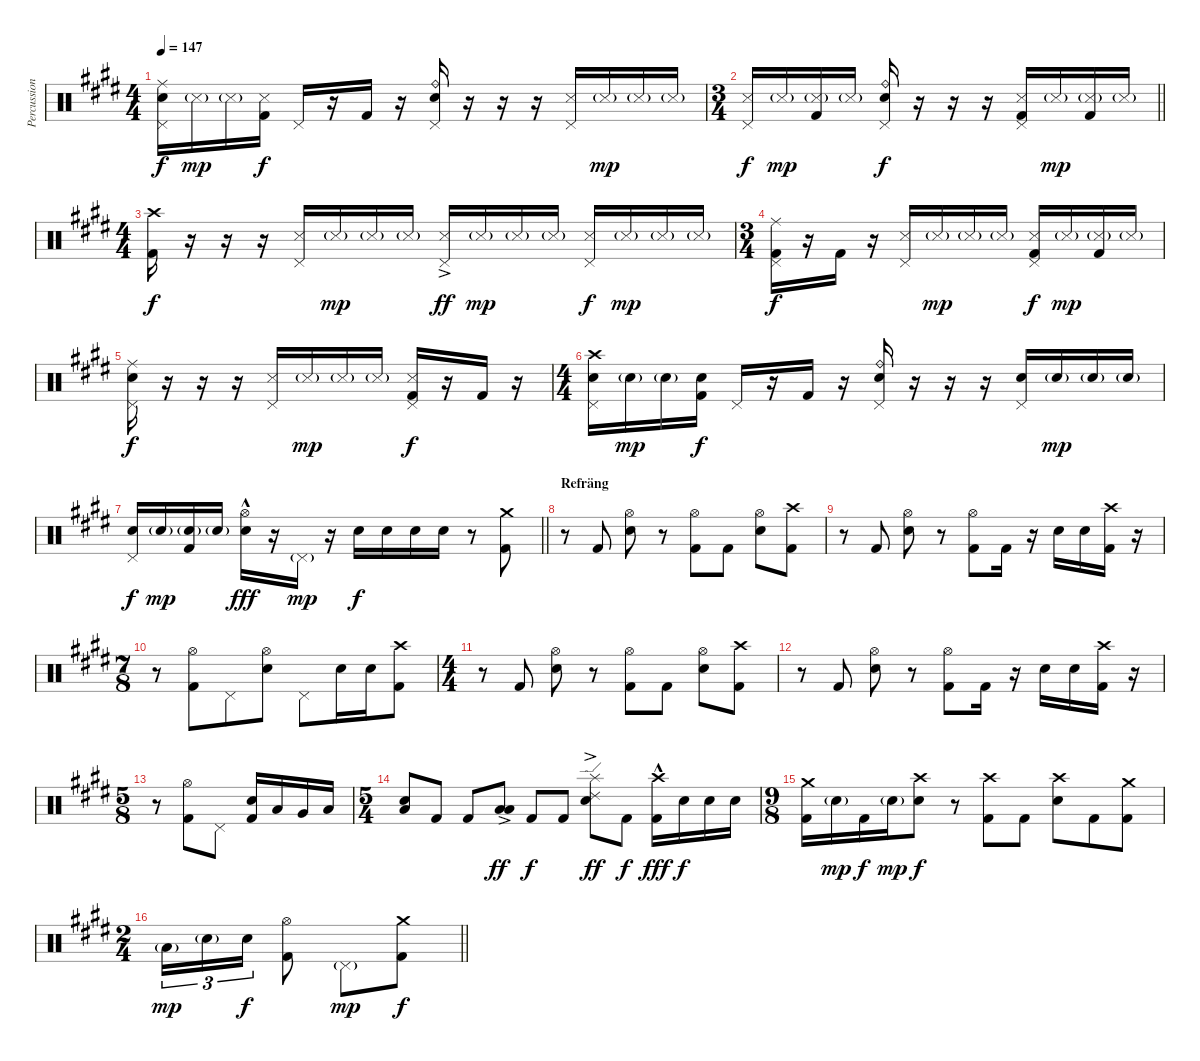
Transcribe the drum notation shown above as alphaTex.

\track ("Percussion" "Percussion") {instrument percussion}
\staff {score}
\articulation defaults
\ts (4 4)
\tempo 147
\clef neutral
\ks e
("Ride (middle)" "Pedal Hi-Hat (hit)" "Snare (hit) 2").16{dy f} "Snare (side stick) 3"{g}.16{dy mp} "Snare (side stick) 3"{g}.16 ("Snare (side stick) 3" "Kick (hit) 2").16{dy f} "Pedal Hi-Hat (hit)".16 r.16 "Kick (hit) 2".16 r.16 ("Ride (bell)" "Pedal Hi-Hat (hit)" "Snare (hit) 2").16 r.16 r.16 r.16 ("Pedal Hi-Hat (hit)" "Snare (side stick) 3").16 "Snare (side stick) 3"{g}.16{dy mp} "Snare (side stick) 3"{g}.16 "Snare (side stick) 3"{g}.16 |
\ts (3 4)
\barLineRight lightlight
("Pedal Hi-Hat (hit)" "Snare (side stick) 3").16{dy f} "Snare (side stick) 3"{g}.16{dy mp} ("Snare (side stick) 3"{g} "Kick (hit) 2").16 "Snare (side stick) 3"{g}.16 ("Ride (bell)" "Pedal Hi-Hat (hit)" "Snare (hit) 2").16{dy f} r.16 r.16 r.16 ("Pedal Hi-Hat (hit)" "Snare (side stick) 3" "Kick (hit) 2").16 "Snare (side stick) 3"{g}.16{dy mp} ("Snare (side stick) 3"{g} "Kick (hit) 2").16 "Snare (side stick) 3"{g}.16 |
\ts (4 4)
("Crash high (hit)" "Kick (hit) 2").16{dy f} r.16 r.16 r.16 ("Pedal Hi-Hat (hit)" "Snare (side stick) 3").16 "Snare (side stick) 3"{g}.16{dy mp} "Snare (side stick) 3"{g}.16 "Snare (side stick) 3"{g}.16 ("Pedal Hi-Hat (hit)" "Snare (side stick) 3"{ac}).16{dy ff} "Snare (side stick) 3"{g}.16{dy mp} "Snare (side stick) 3"{g}.16 "Snare (side stick) 3"{g}.16 ("Pedal Hi-Hat (hit)" "Snare (side stick) 3").16{dy f} "Snare (side stick) 3"{g}.16{dy mp} "Snare (side stick) 3"{g}.16 "Snare (side stick) 3"{g}.16 |
\ts (3 4)
("Ride (middle)" "Pedal Hi-Hat (hit)" "Kick (hit) 2").16{dy f} r.16 "Kick (hit) 2".16 r.16 ("Pedal Hi-Hat (hit)" "Snare (side stick) 3").16 "Snare (side stick) 3"{g}.16{dy mp} "Snare (side stick) 3"{g}.16 "Snare (side stick) 3"{g}.16 ("Pedal Hi-Hat (hit)" "Snare (side stick) 3" "Kick (hit) 2").16{dy f} "Snare (side stick) 3"{g}.16{dy mp} ("Snare (side stick) 3"{g} "Kick (hit) 2").16 "Snare (side stick) 3"{g}.16 |
("Ride (middle)" "Pedal Hi-Hat (hit)" "Snare (hit) 2").16{dy f} r.16 r.16 r.16 ("Pedal Hi-Hat (hit)" "Snare (side stick) 3").16 "Snare (side stick) 3"{g}.16{dy mp} "Snare (side stick) 3"{g}.16 "Snare (side stick) 3"{g}.16 ("Pedal Hi-Hat (hit)" "Snare (side stick) 3" "Kick (hit) 2").16{dy f} r.16 "Kick (hit) 2".16 r.16 |
\ts (4 4)
("Crash high (hit)" "Pedal Hi-Hat (hit)" "Snare (hit) 2").16 "Snare (hit) 2"{g}.16{dy mp} "Snare (hit) 2"{g}.16 ("Snare (hit) 2" "Kick (hit) 2").16{dy f} "Pedal Hi-Hat (hit)".16 r.16 "Kick (hit) 2".16 r.16 ("Ride (bell)" "Pedal Hi-Hat (hit)" "Snare (hit) 2").16 r.16 r.16 r.16 ("Pedal Hi-Hat (hit)" "Snare (hit) 2").16 "Snare (hit) 2"{g}.16{dy mp} "Snare (hit) 2"{g}.16 "Snare (hit) 2"{g}.16 |
\barLineRight lightlight
("Pedal Hi-Hat (hit)" "Snare (hit) 2").16{dy f} "Snare (hit) 2"{g}.16{dy mp} ("Snare (hit) 2"{g} "Kick (hit) 2").16 "Snare (hit) 2"{g}.16 ("Hi-Hat (open)"{hac} "Snare (hit) 2"{hac}).16{dy fff} r.16 "Pedal Hi-Hat (hit)"{g}.16{dy mp} r.16 "Snare (hit) 2".16{dy f} "Snare (hit) 2".16 "Snare (hit) 2".16 "Snare (hit) 2".16 r.8 ("Crash medium (hit)" "Kick (hit) 2").8 |
\section ("" "Refräng")
r.8 "Kick (hit) 2".8 ("Hi-Hat (open)" "Snare (hit) 2").8 r.8 ("Hi-Hat (open)" "Kick (hit) 2").8 "Kick (hit) 2".8 ("Hi-Hat (open)" "Snare (hit) 2").8 ("Crash high (hit)" "Kick (hit) 2").8 |
r.8 "Kick (hit) 2".8 ("Hi-Hat (open)" "Snare (hit) 2").8 r.8 ("Hi-Hat (open)" "Kick (hit) 2").8 "Kick (hit) 2".16 r.16 "Snare (hit) 2".16 "Snare (hit) 2".16 ("Crash high (hit)" "Kick (hit) 2").16 r.16 |
\ts (7 8)
r.8 ("Hi-Hat (open)" "Kick (hit) 2").8 "Pedal Hi-Hat (hit)".8 ("Hi-Hat (open)" "Snare (hit) 2").8 "Pedal Hi-Hat (hit)".8 "Snare (hit) 2".16 "Snare (hit) 2".16 ("Crash high (hit)" "Kick (hit) 2").8 |
\ts (4 4)
r.8 "Kick (hit) 2".8 ("Hi-Hat (open)" "Snare (hit) 2").8 r.8 ("Hi-Hat (open)" "Kick (hit) 2").8 "Kick (hit) 2".8 ("Hi-Hat (open)" "Snare (hit) 2").8 ("Crash high (hit)" "Kick (hit) 2").8 |
r.8 "Kick (hit) 2".8 ("Hi-Hat (open)" "Snare (hit) 2").8 r.8 ("Hi-Hat (open)" "Kick (hit) 2").8 "Kick (hit) 2".16 r.16 "Snare (hit) 2".16 "Snare (hit) 2".16 ("Crash high (hit)" "Kick (hit) 2").16 r.16 |
\ts (5 8)
r.8 ("Hi-Hat (open)" "Kick (hit) 2").8 "Pedal Hi-Hat (hit)".8 ("Snare (hit) 2" "Kick (hit) 2").16 "Low Tom (hit)".16 "Very Low Tom (hit)".16 "Low Floor Tom (hit)".16 |
\ts (5 4)
("Snare (hit) 2" "Low Tom (hit)").8{bd 120} "Kick (hit) 2".8 "Kick (hit) 2".8 ("Low Tom (hit)"{ac} "Low Floor Tom (hit)"{ac}).8{bd 120 dy ff} "Kick (hit) 2".8{dy f} "Kick (hit) 2".8 ("Ride (edge) 2" "Splash (hit)" "Snare (hit) 2"{ac}).8{dy ff} "Kick (hit) 2".8{dy f} ("Crash high (hit)"{hac} "Kick (hit) 2"{hac}).16{dy fff} "Snare (hit) 2".16{dy f} "Snare (hit) 2".16 "Snare (hit) 2".16 |
\ts (9 8)
("Crash medium (hit)" "Kick (hit) 2").16 "Snare (hit) 2"{g}.16{dy mp} "Kick (hit) 2".16{dy f} "Snare (hit) 2"{g}.16{dy mp} ("Crash high (hit)" "Snare (hit) 2").8{dy f} r.8 ("Crash high (hit)" "Kick (hit) 2").8 "Kick (hit) 2".8 ("Crash high (hit)" "Snare (hit) 2").8 "Kick (hit) 2".8 ("Crash medium (hit)" "Kick (hit) 2").8 |
\ts (2 4)
\barLineRight lightlight "Low Tom (hit)"{g}.16{tu (3 2) dy mp} "Snare (hit) 2"{g}.16{tu (3 2)} "Snare (hit) 2".16{tu (3 2) dy f}
("Hi-Hat (open)" "Kick (hit) 2").8 "Pedal Hi-Hat (hit)"{g}.8{dy mp} ("Crash medium (hit)" "Kick (hit) 2").8{dy f}
